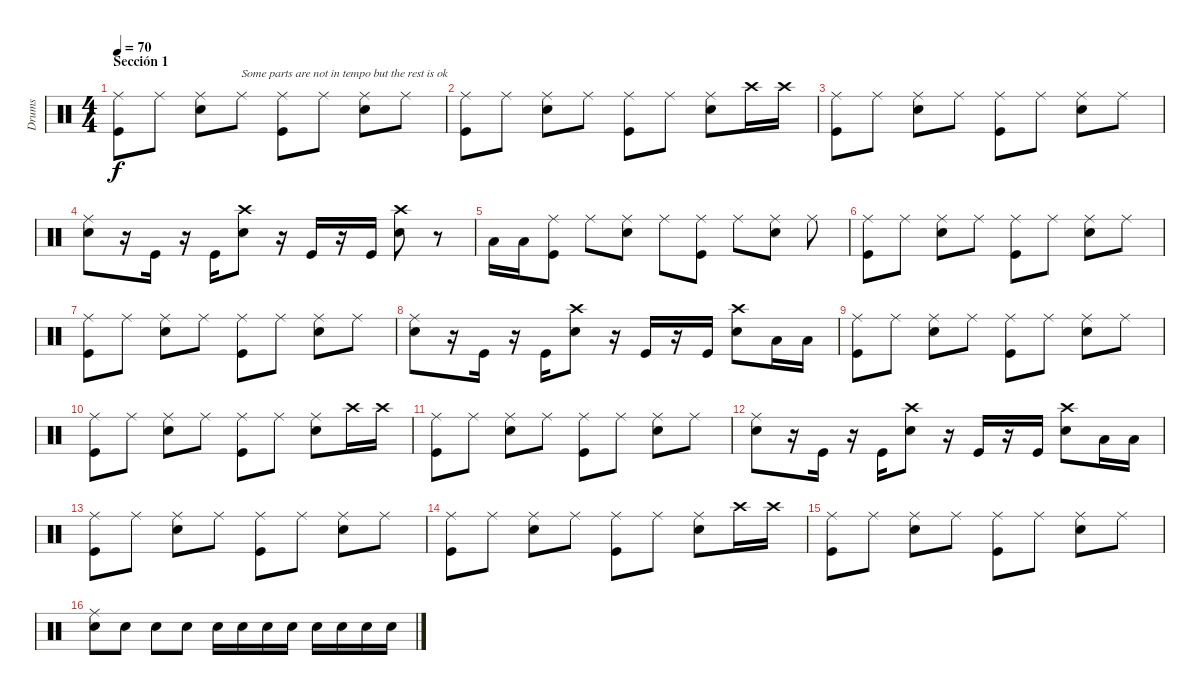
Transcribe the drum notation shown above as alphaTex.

\track ("Drums" "Drums") {instrument percussion}
\staff {score}
\articulation defaults
\ts (4 4)
\section ("" "Sección 1")
\tempo 70
\clef neutral
\ks c
("Ride (middle)" "Kick (hit)").8{dy f} "Ride (middle)".8 ("Ride (middle)" "Snare (hit) 2").8 "Ride (middle)".8{txt "Some parts are not in tempo but the rest is ok"} ("Ride (middle)" "Kick (hit)").8 "Ride (middle)".8 ("Ride (middle)" "Snare (hit) 2").8 "Ride (middle)".8 |
("Ride (middle)" "Kick (hit)").8 "Ride (middle)".8 ("Ride (middle)" "Snare (hit) 2").8 "Ride (middle)".8 ("Ride (middle)" "Kick (hit)").8 "Ride (middle)".8 ("Ride (middle)" "Snare (hit) 2").8 "Crash high (hit)".16 "Crash high (hit)".16 |
("Ride (middle)" "Kick (hit)").8 "Ride (middle)".8 ("Ride (middle)" "Snare (hit) 2").8 "Ride (middle)".8 ("Ride (middle)" "Kick (hit)").8 "Ride (middle)".8 ("Ride (middle)" "Snare (hit) 2").8 "Ride (middle)".8 |
("Ride (middle)" "Snare (hit) 2").8 r.16 "Kick (hit)".16 r.16 "Kick (hit)".16 ("Crash high (hit)" "Snare (hit) 2").8 r.16 "Kick (hit)".16 r.16 "Kick (hit)".16 ("Crash high (hit)" "Snare (hit) 2").8 r.8 |
"Low Tom (hit)".16 "Low Tom (hit)".16 ("Ride (middle)" "Kick (hit)").8 "Ride (middle)".8 ("Ride (middle)" "Snare (hit) 2").8 "Ride (middle)".8 ("Ride (middle)" "Kick (hit)").8 "Ride (middle)".8 ("Ride (middle)" "Snare (hit) 2").8 "Ride (middle)".8 |
("Ride (middle)" "Kick (hit)").8 "Ride (middle)".8 ("Ride (middle)" "Snare (hit) 2").8 "Ride (middle)".8 ("Ride (middle)" "Kick (hit)").8 "Ride (middle)".8 ("Ride (middle)" "Snare (hit) 2").8 "Ride (middle)".8 |
("Ride (middle)" "Kick (hit)").8 "Ride (middle)".8 ("Ride (middle)" "Snare (hit) 2").8 "Ride (middle)".8 ("Ride (middle)" "Kick (hit)").8 "Ride (middle)".8 ("Ride (middle)" "Snare (hit) 2").8 "Ride (middle)".8 |
("Ride (middle)" "Snare (hit) 2").8 r.16 "Kick (hit)".16 r.16 "Kick (hit)".16 ("Crash high (hit)" "Snare (hit) 2").8 r.16 "Kick (hit)".16 r.16 "Kick (hit)".16 ("Crash high (hit)" "Snare (hit) 2").8 "Low Tom (hit)".16 "Low Tom (hit)".16 |
("Ride (middle)" "Kick (hit)").8 "Ride (middle)".8 ("Ride (middle)" "Snare (hit) 2").8 "Ride (middle)".8 ("Ride (middle)" "Kick (hit)").8 "Ride (middle)".8 ("Ride (middle)" "Snare (hit) 2").8 "Ride (middle)".8 |
("Ride (middle)" "Kick (hit)").8 "Ride (middle)".8 ("Ride (middle)" "Snare (hit) 2").8 "Ride (middle)".8 ("Ride (middle)" "Kick (hit)").8 "Ride (middle)".8 ("Ride (middle)" "Snare (hit) 2").8 "Crash high (hit)".16 "Crash high (hit)".16 |
("Ride (middle)" "Kick (hit)").8 "Ride (middle)".8 ("Ride (middle)" "Snare (hit) 2").8 "Ride (middle)".8 ("Ride (middle)" "Kick (hit)").8 "Ride (middle)".8 ("Ride (middle)" "Snare (hit) 2").8 "Ride (middle)".8 |
("Ride (middle)" "Snare (hit) 2").8 r.16 "Kick (hit)".16 r.16 "Kick (hit)".16 ("Crash high (hit)" "Snare (hit) 2").8 r.16 "Kick (hit)".16 r.16 "Kick (hit)".16 ("Crash high (hit)" "Snare (hit) 2").8 "Low Tom (hit)".16 "Low Tom (hit)".16 |
("Ride (middle)" "Kick (hit)").8 "Ride (middle)".8 ("Ride (middle)" "Snare (hit) 2").8 "Ride (middle)".8 ("Ride (middle)" "Kick (hit)").8 "Ride (middle)".8 ("Ride (middle)" "Snare (hit) 2").8 "Ride (middle)".8 |
("Ride (middle)" "Kick (hit)").8 "Ride (middle)".8 ("Ride (middle)" "Snare (hit) 2").8 "Ride (middle)".8 ("Ride (middle)" "Kick (hit)").8 "Ride (middle)".8 ("Ride (middle)" "Snare (hit) 2").8 "Crash high (hit)".16 "Crash high (hit)".16 |
("Ride (middle)" "Kick (hit)").8 "Ride (middle)".8 ("Ride (middle)" "Snare (hit) 2").8 "Ride (middle)".8 ("Ride (middle)" "Kick (hit)").8 "Ride (middle)".8 ("Ride (middle)" "Snare (hit) 2").8 "Ride (middle)".8 |
("Ride (middle)" "Snare (hit) 2").8 "Snare (hit) 2".8 "Snare (hit) 2".8 "Snare (hit) 2".8 "Snare (hit) 2".16 "Snare (hit) 2".16 "Snare (hit) 2".16 "Snare (hit) 2".16 "Snare (hit) 2".16 "Snare (hit) 2".16 "Snare (hit) 2".16 "Snare (hit) 2".16
